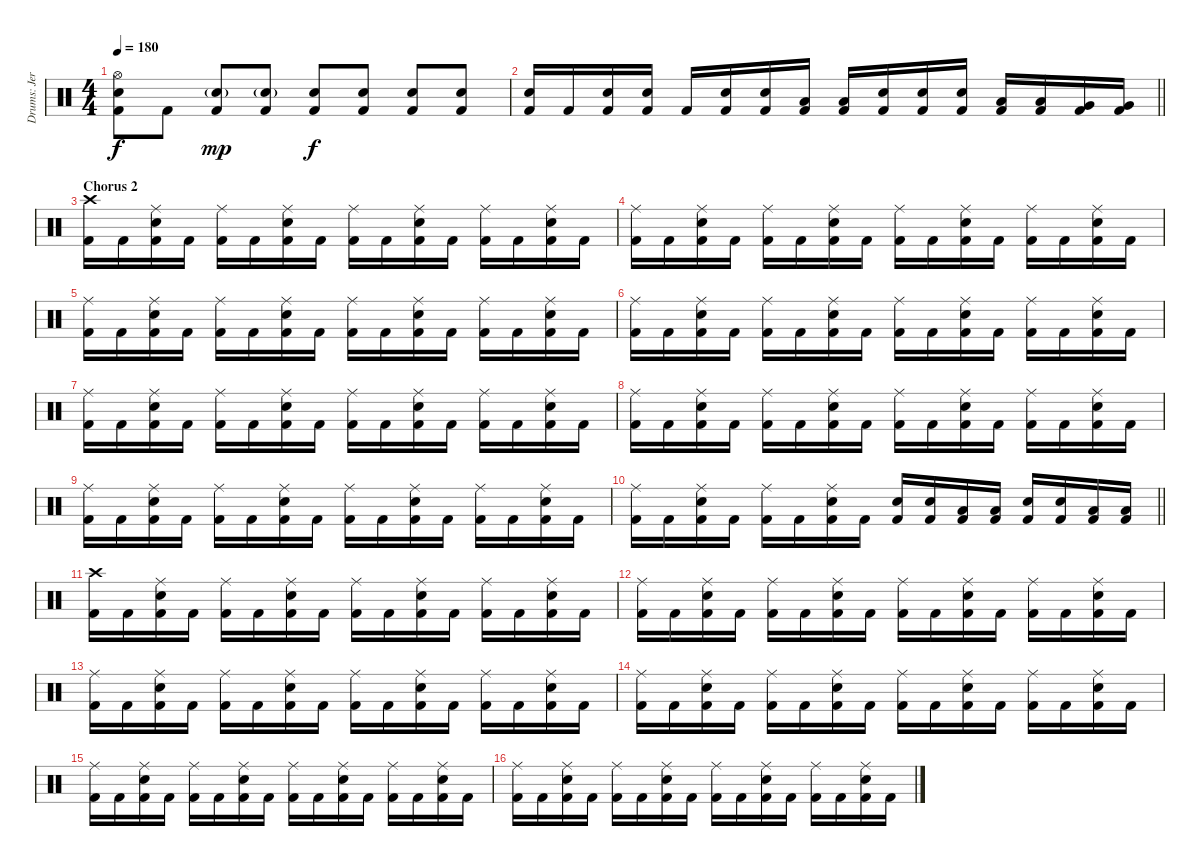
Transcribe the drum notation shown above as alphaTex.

\track ("Drums: Jere Luokkamäki" "Drums: Jer") {instrument percussion}
\staff {score}
\articulation defaults
\ts (4 4)
\tempo 180
\clef neutral
\ks aminor
("Hi-Hat (open)" "Electric Snare (hit)" "Kick (hit) 2").8{dy f} "Kick (hit) 2".8 ("Electric Snare (hit)"{g} "Kick (hit) 2").8{dy mp} ("Electric Snare (hit)"{g} "Kick (hit) 2").8 ("Electric Snare (hit)" "Kick (hit) 2").8{dy f} ("Electric Snare (hit)" "Kick (hit) 2").8 ("Electric Snare (hit)" "Kick (hit) 2").8 ("Electric Snare (hit)" "Kick (hit) 2").8 |
\barLineRight lightlight
("Electric Snare (hit)" "Kick (hit) 2").16 "Kick (hit) 2".16 ("Electric Snare (hit)" "Kick (hit) 2").16 ("Electric Snare (hit)" "Kick (hit) 2").16 "Kick (hit) 2".16 ("Electric Snare (hit)" "Kick (hit) 2").16 ("Electric Snare (hit)" "Kick (hit) 2").16 ("Low Tom (hit)" "Kick (hit) 2").16 ("Low Tom (hit)" "Kick (hit) 2").16 ("Electric Snare (hit)" "Kick (hit) 2").16 ("Electric Snare (hit)" "Kick (hit) 2").16 ("Electric Snare (hit)" "Kick (hit) 2").16 ("Low Tom (hit)" "Kick (hit) 2").16 ("Low Tom (hit)" "Kick (hit) 2").16 ("Very Low Tom (hit)" "Kick (hit) 2").16 ("Very Low Tom (hit)" "Kick (hit) 2").16 |
\section ("" "Chorus 2")
("Crash high (hit)" "Kick (hit) 2").16 "Kick (hit) 2".16 ("Ride (middle)" "Electric Snare (hit)" "Kick (hit) 2").16 "Kick (hit) 2".16 ("Ride (middle)" "Kick (hit) 2").16 "Kick (hit) 2".16 ("Ride (middle)" "Electric Snare (hit)" "Kick (hit) 2").16 "Kick (hit) 2".16 ("Ride (middle)" "Kick (hit) 2").16 "Kick (hit) 2".16 ("Ride (middle)" "Electric Snare (hit)" "Kick (hit) 2").16 "Kick (hit) 2".16 ("Ride (middle)" "Kick (hit) 2").16 "Kick (hit) 2".16 ("Ride (middle)" "Electric Snare (hit)" "Kick (hit) 2").16 "Kick (hit) 2".16 |
("Ride (middle)" "Kick (hit) 2").16 "Kick (hit) 2".16 ("Ride (middle)" "Electric Snare (hit)" "Kick (hit) 2").16 "Kick (hit) 2".16 ("Ride (middle)" "Kick (hit) 2").16 "Kick (hit) 2".16 ("Ride (middle)" "Electric Snare (hit)" "Kick (hit) 2").16 "Kick (hit) 2".16 ("Ride (middle)" "Kick (hit) 2").16 "Kick (hit) 2".16 ("Ride (middle)" "Electric Snare (hit)" "Kick (hit) 2").16 "Kick (hit) 2".16 ("Ride (middle)" "Kick (hit) 2").16 "Kick (hit) 2".16 ("Ride (middle)" "Electric Snare (hit)" "Kick (hit) 2").16 "Kick (hit) 2".16 |
("Ride (middle)" "Kick (hit) 2").16 "Kick (hit) 2".16 ("Ride (middle)" "Electric Snare (hit)" "Kick (hit) 2").16 "Kick (hit) 2".16 ("Ride (middle)" "Kick (hit) 2").16 "Kick (hit) 2".16 ("Ride (middle)" "Electric Snare (hit)" "Kick (hit) 2").16 "Kick (hit) 2".16 ("Ride (middle)" "Kick (hit) 2").16 "Kick (hit) 2".16 ("Ride (middle)" "Electric Snare (hit)" "Kick (hit) 2").16 "Kick (hit) 2".16 ("Ride (middle)" "Kick (hit) 2").16 "Kick (hit) 2".16 ("Ride (middle)" "Electric Snare (hit)" "Kick (hit) 2").16 "Kick (hit) 2".16 |
("Ride (middle)" "Kick (hit) 2").16 "Kick (hit) 2".16 ("Ride (middle)" "Electric Snare (hit)" "Kick (hit) 2").16 "Kick (hit) 2".16 ("Ride (middle)" "Kick (hit) 2").16 "Kick (hit) 2".16 ("Ride (middle)" "Electric Snare (hit)" "Kick (hit) 2").16 "Kick (hit) 2".16 ("Ride (middle)" "Kick (hit) 2").16 "Kick (hit) 2".16 ("Ride (middle)" "Electric Snare (hit)" "Kick (hit) 2").16 "Kick (hit) 2".16 ("Ride (middle)" "Kick (hit) 2").16 "Kick (hit) 2".16 ("Ride (middle)" "Electric Snare (hit)" "Kick (hit) 2").16 "Kick (hit) 2".16 |
("Ride (middle)" "Kick (hit) 2").16 "Kick (hit) 2".16 ("Ride (middle)" "Electric Snare (hit)" "Kick (hit) 2").16 "Kick (hit) 2".16 ("Ride (middle)" "Kick (hit) 2").16 "Kick (hit) 2".16 ("Ride (middle)" "Electric Snare (hit)" "Kick (hit) 2").16 "Kick (hit) 2".16 ("Ride (middle)" "Kick (hit) 2").16 "Kick (hit) 2".16 ("Ride (middle)" "Electric Snare (hit)" "Kick (hit) 2").16 "Kick (hit) 2".16 ("Ride (middle)" "Kick (hit) 2").16 "Kick (hit) 2".16 ("Ride (middle)" "Electric Snare (hit)" "Kick (hit) 2").16 "Kick (hit) 2".16 |
("Ride (middle)" "Kick (hit) 2").16 "Kick (hit) 2".16 ("Ride (middle)" "Electric Snare (hit)" "Kick (hit) 2").16 "Kick (hit) 2".16 ("Ride (middle)" "Kick (hit) 2").16 "Kick (hit) 2".16 ("Ride (middle)" "Electric Snare (hit)" "Kick (hit) 2").16 "Kick (hit) 2".16 ("Ride (middle)" "Kick (hit) 2").16 "Kick (hit) 2".16 ("Ride (middle)" "Electric Snare (hit)" "Kick (hit) 2").16 "Kick (hit) 2".16 ("Ride (middle)" "Kick (hit) 2").16 "Kick (hit) 2".16 ("Ride (middle)" "Electric Snare (hit)" "Kick (hit) 2").16 "Kick (hit) 2".16 |
("Ride (middle)" "Kick (hit) 2").16 "Kick (hit) 2".16 ("Ride (middle)" "Electric Snare (hit)" "Kick (hit) 2").16 "Kick (hit) 2".16 ("Ride (middle)" "Kick (hit) 2").16 "Kick (hit) 2".16 ("Ride (middle)" "Electric Snare (hit)" "Kick (hit) 2").16 "Kick (hit) 2".16 ("Ride (middle)" "Kick (hit) 2").16 "Kick (hit) 2".16 ("Ride (middle)" "Electric Snare (hit)" "Kick (hit) 2").16 "Kick (hit) 2".16 ("Ride (middle)" "Kick (hit) 2").16 "Kick (hit) 2".16 ("Ride (middle)" "Electric Snare (hit)" "Kick (hit) 2").16 "Kick (hit) 2".16 |
\barLineRight lightlight
("Ride (middle)" "Kick (hit) 2").16 "Kick (hit) 2".16 ("Ride (middle)" "Electric Snare (hit)" "Kick (hit) 2").16 "Kick (hit) 2".16 ("Ride (middle)" "Kick (hit) 2").16 "Kick (hit) 2".16 ("Ride (middle)" "Electric Snare (hit)" "Kick (hit) 2").16 "Kick (hit) 2".16 ("Electric Snare (hit)" "Kick (hit) 2").16 ("Electric Snare (hit)" "Kick (hit) 2").16 ("Low Tom (hit)" "Kick (hit) 2").16 ("Low Tom (hit)" "Kick (hit) 2").16 ("Electric Snare (hit)" "Kick (hit) 2").16 ("Electric Snare (hit)" "Kick (hit) 2").16 ("Low Tom (hit)" "Kick (hit) 2").16 ("Low Tom (hit)" "Kick (hit) 2").16 |
("Crash high (hit)" "Kick (hit) 2").16 "Kick (hit) 2".16 ("Ride (middle)" "Electric Snare (hit)" "Kick (hit) 2").16 "Kick (hit) 2".16 ("Ride (middle)" "Kick (hit) 2").16 "Kick (hit) 2".16 ("Ride (middle)" "Electric Snare (hit)" "Kick (hit) 2").16 "Kick (hit) 2".16 ("Ride (middle)" "Kick (hit) 2").16 "Kick (hit) 2".16 ("Ride (middle)" "Electric Snare (hit)" "Kick (hit) 2").16 "Kick (hit) 2".16 ("Ride (middle)" "Kick (hit) 2").16 "Kick (hit) 2".16 ("Ride (middle)" "Electric Snare (hit)" "Kick (hit) 2").16 "Kick (hit) 2".16 |
("Ride (middle)" "Kick (hit) 2").16 "Kick (hit) 2".16 ("Ride (middle)" "Electric Snare (hit)" "Kick (hit) 2").16 "Kick (hit) 2".16 ("Ride (middle)" "Kick (hit) 2").16 "Kick (hit) 2".16 ("Ride (middle)" "Electric Snare (hit)" "Kick (hit) 2").16 "Kick (hit) 2".16 ("Ride (middle)" "Kick (hit) 2").16 "Kick (hit) 2".16 ("Ride (middle)" "Electric Snare (hit)" "Kick (hit) 2").16 "Kick (hit) 2".16 ("Ride (middle)" "Kick (hit) 2").16 "Kick (hit) 2".16 ("Ride (middle)" "Electric Snare (hit)" "Kick (hit) 2").16 "Kick (hit) 2".16 |
("Ride (middle)" "Kick (hit) 2").16 "Kick (hit) 2".16 ("Ride (middle)" "Electric Snare (hit)" "Kick (hit) 2").16 "Kick (hit) 2".16 ("Ride (middle)" "Kick (hit) 2").16 "Kick (hit) 2".16 ("Ride (middle)" "Electric Snare (hit)" "Kick (hit) 2").16 "Kick (hit) 2".16 ("Ride (middle)" "Kick (hit) 2").16 "Kick (hit) 2".16 ("Ride (middle)" "Electric Snare (hit)" "Kick (hit) 2").16 "Kick (hit) 2".16 ("Ride (middle)" "Kick (hit) 2").16 "Kick (hit) 2".16 ("Ride (middle)" "Electric Snare (hit)" "Kick (hit) 2").16 "Kick (hit) 2".16 |
("Ride (middle)" "Kick (hit) 2").16 "Kick (hit) 2".16 ("Ride (middle)" "Electric Snare (hit)" "Kick (hit) 2").16 "Kick (hit) 2".16 ("Ride (middle)" "Kick (hit) 2").16 "Kick (hit) 2".16 ("Ride (middle)" "Electric Snare (hit)" "Kick (hit) 2").16 "Kick (hit) 2".16 ("Ride (middle)" "Kick (hit) 2").16 "Kick (hit) 2".16 ("Ride (middle)" "Electric Snare (hit)" "Kick (hit) 2").16 "Kick (hit) 2".16 ("Ride (middle)" "Kick (hit) 2").16 "Kick (hit) 2".16 ("Ride (middle)" "Electric Snare (hit)" "Kick (hit) 2").16 "Kick (hit) 2".16 |
("Ride (middle)" "Kick (hit) 2").16 "Kick (hit) 2".16 ("Ride (middle)" "Electric Snare (hit)" "Kick (hit) 2").16 "Kick (hit) 2".16 ("Ride (middle)" "Kick (hit) 2").16 "Kick (hit) 2".16 ("Ride (middle)" "Electric Snare (hit)" "Kick (hit) 2").16 "Kick (hit) 2".16 ("Ride (middle)" "Kick (hit) 2").16 "Kick (hit) 2".16 ("Ride (middle)" "Electric Snare (hit)" "Kick (hit) 2").16 "Kick (hit) 2".16 ("Ride (middle)" "Kick (hit) 2").16 "Kick (hit) 2".16 ("Ride (middle)" "Electric Snare (hit)" "Kick (hit) 2").16 "Kick (hit) 2".16 |
("Ride (middle)" "Kick (hit) 2").16 "Kick (hit) 2".16 ("Ride (middle)" "Electric Snare (hit)" "Kick (hit) 2").16 "Kick (hit) 2".16 ("Ride (middle)" "Kick (hit) 2").16 "Kick (hit) 2".16 ("Ride (middle)" "Electric Snare (hit)" "Kick (hit) 2").16 "Kick (hit) 2".16 ("Ride (middle)" "Kick (hit) 2").16 "Kick (hit) 2".16 ("Ride (middle)" "Electric Snare (hit)" "Kick (hit) 2").16 "Kick (hit) 2".16 ("Ride (middle)" "Kick (hit) 2").16 "Kick (hit) 2".16 ("Ride (middle)" "Electric Snare (hit)" "Kick (hit) 2").16 "Kick (hit) 2".16
